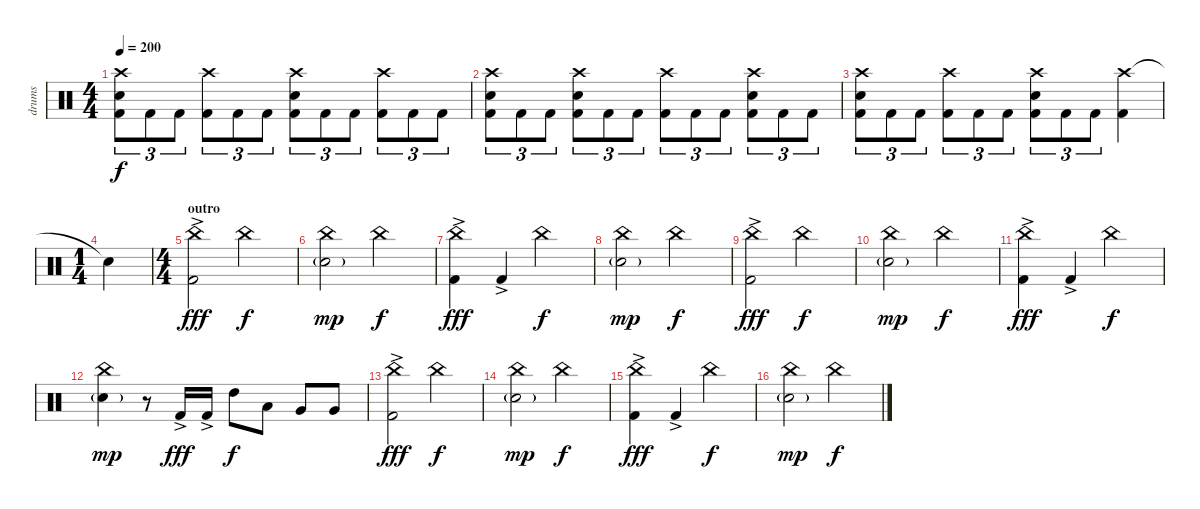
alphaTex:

\track ("drums" "drums") {instrument percussion}
\staff {score}
\articulation defaults
\ts (4 4)
\tempo 200
\clef neutral
\ks c
("Crash high (hit)" "Electric Snare (hit)" "Kick (hit) 2").8{tu (3 2) dy f} "Kick (hit) 2".8{tu (3 2)} "Kick (hit) 2".8{tu (3 2)} ("Crash high (hit)" "Kick (hit) 2").8{tu (3 2)} "Kick (hit) 2".8{tu (3 2)} "Kick (hit) 2".8{tu (3 2)} ("Crash high (hit)" "Electric Snare (hit)" "Kick (hit) 2").8{tu (3 2)} "Kick (hit) 2".8{tu (3 2)} "Kick (hit) 2".8{tu (3 2)} ("Crash high (hit)" "Kick (hit) 2").8{tu (3 2)} "Kick (hit) 2".8{tu (3 2)} "Kick (hit) 2".8{tu (3 2)} |
("Crash high (hit)" "Electric Snare (hit)" "Kick (hit) 2").8{tu (3 2)} "Kick (hit) 2".8{tu (3 2)} "Kick (hit) 2".8{tu (3 2)} ("Crash high (hit)" "Electric Snare (hit)" "Kick (hit) 2").8{tu (3 2)} "Kick (hit) 2".8{tu (3 2)} "Kick (hit) 2".8{tu (3 2)} ("Crash high (hit)" "Kick (hit) 2").8{tu (3 2)} "Kick (hit) 2".8{tu (3 2)} "Kick (hit) 2".8{tu (3 2)} ("Crash high (hit)" "Electric Snare (hit)" "Kick (hit) 2").8{tu (3 2)} "Kick (hit) 2".8{tu (3 2)} "Kick (hit) 2".8{tu (3 2)} |
("Crash high (hit)" "Electric Snare (hit)" "Kick (hit) 2").8{tu (3 2)} "Kick (hit) 2".8{tu (3 2)} "Kick (hit) 2".8{tu (3 2)} ("Crash high (hit)" "Kick (hit) 2").8{tu (3 2)} "Kick (hit) 2".8{tu (3 2)} "Kick (hit) 2".8{tu (3 2)} ("Crash high (hit)" "Electric Snare (hit)" "Kick (hit) 2").8{tu (3 2)} "Kick (hit) 2".8{tu (3 2)} "Kick (hit) 2".8{tu (3 2)} ("Crash high (hit)" "Kick (hit) 2").4 |
\ts (1 4)
"Snare (hit)"{t}.4 |
\ts (4 4)
\section ("" "outro ")
("China (hit)" "Kick (hit) 2"{ac}).2{dy fff} "China (hit)".2{dy f} |
("China (hit)" "Snare (hit) 2"{g}).2{dy mp} "China (hit)".2{dy f} |
("China (hit)" "Kick (hit) 2"{ac}).4{dy fff} "Kick (hit) 2"{ac}.4 "China (hit)".2{dy f} |
("China (hit)" "Snare (hit) 2"{g}).2{dy mp} "China (hit)".2{dy f} |
("China (hit)" "Kick (hit) 2"{ac}).2{dy fff} "China (hit)".2{dy f} |
("China (hit)" "Snare (hit) 2"{g}).2{dy mp} "China (hit)".2{dy f} |
("China (hit)" "Kick (hit) 2"{ac}).4{dy fff} "Kick (hit) 2"{ac}.4 "China (hit)".2{dy f} |
("China (hit)" "Snare (hit) 2"{g}).4{dy mp} r.8 "Kick (hit) 2"{ac}.16{dy fff} "Kick (hit) 2"{ac}.16 "High Tom (hit)".8{dy f} "Low Tom (hit)".8 "Very Low Tom (hit)".8 "Very Low Tom (hit)".8 |
("China (hit)" "Kick (hit) 2"{ac}).2{dy fff} "China (hit)".2{dy f} |
("China (hit)" "Snare (hit) 2"{g}).2{dy mp} "China (hit)".2{dy f} |
("China (hit)" "Kick (hit) 2"{ac}).4{dy fff} "Kick (hit) 2"{ac}.4 "China (hit)".2{dy f} |
("China (hit)" "Snare (hit) 2"{g}).2{dy mp} "China (hit)".2{dy f}
